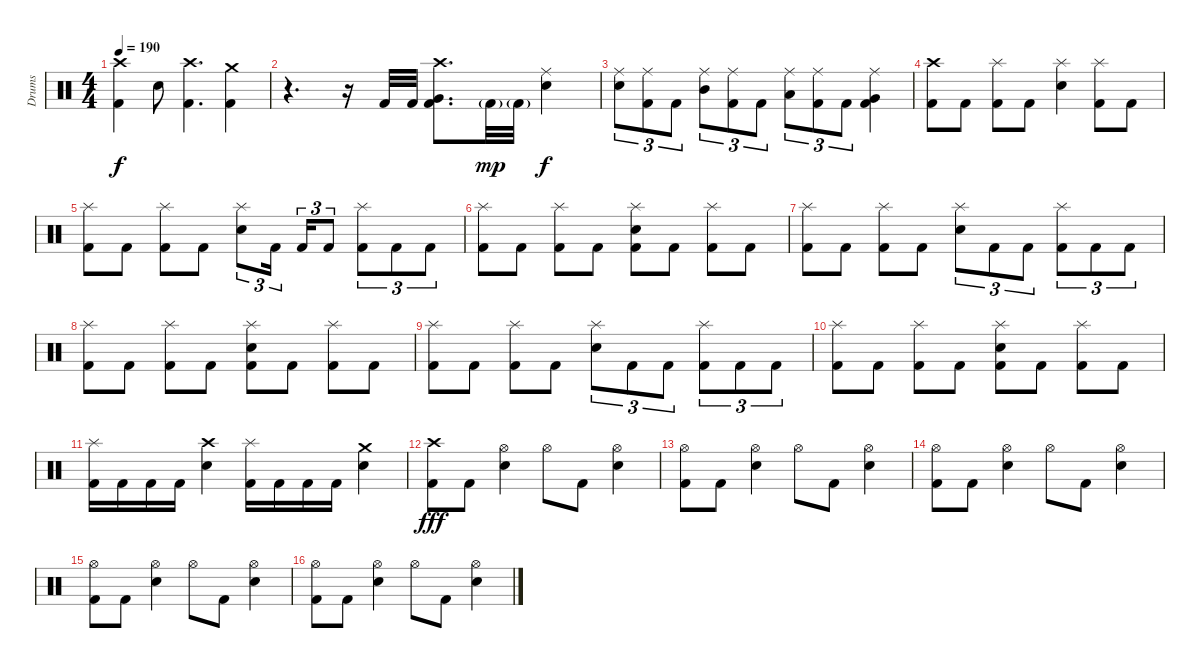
\track ("Drums" "Drums") {instrument percussion}
\staff {score}
\articulation defaults
\ts (4 4)
\tempo 190
\clef neutral
\ks c
("Crash high (hit)" "Kick (hit) 2").4{dy f} "Electric Snare (hit)".8 ("Crash high (hit)" "Kick (hit) 2").4{d} ("Crash medium (hit)" "Kick (hit) 2").4 |
r.4{d} r.16 "Kick (hit) 2".32 "Kick (hit) 2".32 ("Crash high (hit)" "Very Low Tom (hit)" "Kick (hit) 2").8{d} "Kick (hit) 2"{g}.32{dy mp} "Kick (hit) 2"{g}.32 ("Ride (middle)" "Electric Snare (hit)").4{dy f} |
("Ride (middle)" "Electric Snare (hit)").8{tu (3 2)} ("Ride (middle)" "Kick (hit) 2").8{tu (3 2)} "Kick (hit) 2".8{tu (3 2)} ("Ride (middle)" "Mid Tom (hit)").8{tu (3 2)} ("Ride (middle)" "Kick (hit) 2").8{tu (3 2)} "Kick (hit) 2".8{tu (3 2)} ("Ride (middle)" "Low Tom (hit)").8{tu (3 2)} ("Ride (middle)" "Kick (hit) 2").8{tu (3 2)} "Kick (hit) 2".8{tu (3 2)} ("Ride (middle)" "Very Low Tom (hit)" "Kick (hit) 2").4 |
("Crash high (hit)" "Kick (hit) 2").8 "Kick (hit) 2".8 ("Splash (hit)" "Kick (hit) 2").8 "Kick (hit) 2".8 ("Splash (hit)" "Electric Snare (hit)").4 ("Splash (hit)" "Kick (hit) 2").8 "Kick (hit) 2".8 |
("Splash (hit)" "Kick (hit) 2").8 "Kick (hit) 2".8 ("Splash (hit)" "Kick (hit) 2").8 "Kick (hit) 2".8 ("Splash (hit)" "Electric Snare (hit)").8{tu (3 2)} "Kick (hit) 2".16{tu (3 2) beam splitsecondary} "Kick (hit) 2".16{tu (3 2)} "Kick (hit) 2".8{tu (3 2)} ("Splash (hit)" "Kick (hit) 2").8{tu (3 2)} "Kick (hit) 2".8{tu (3 2)} "Kick (hit) 2".8{tu (3 2)} |
("Splash (hit)" "Kick (hit) 2").8 "Kick (hit) 2".8 ("Splash (hit)" "Kick (hit) 2").8 "Kick (hit) 2".8 ("Splash (hit)" "Electric Snare (hit)" "Kick (hit) 2").8 "Kick (hit) 2".8 ("Splash (hit)" "Kick (hit) 2").8 "Kick (hit) 2".8 |
("Splash (hit)" "Kick (hit) 2").8 "Kick (hit) 2".8 ("Splash (hit)" "Kick (hit) 2").8 "Kick (hit) 2".8 ("Splash (hit)" "Electric Snare (hit)").8{tu (3 2)} "Kick (hit) 2".8{tu (3 2)} "Kick (hit) 2".8{tu (3 2)} ("Splash (hit)" "Kick (hit) 2").8{tu (3 2)} "Kick (hit) 2".8{tu (3 2)} "Kick (hit) 2".8{tu (3 2)} |
("Splash (hit)" "Kick (hit) 2").8 "Kick (hit) 2".8 ("Splash (hit)" "Kick (hit) 2").8 "Kick (hit) 2".8 ("Splash (hit)" "Electric Snare (hit)" "Kick (hit) 2").8 "Kick (hit) 2".8 ("Splash (hit)" "Kick (hit) 2").8 "Kick (hit) 2".8 |
("Splash (hit)" "Kick (hit) 2").8 "Kick (hit) 2".8 ("Splash (hit)" "Kick (hit) 2").8 "Kick (hit) 2".8 ("Splash (hit)" "Electric Snare (hit)").8{tu (3 2)} "Kick (hit) 2".8{tu (3 2)} "Kick (hit) 2".8{tu (3 2)} ("Splash (hit)" "Kick (hit) 2").8{tu (3 2)} "Kick (hit) 2".8{tu (3 2)} "Kick (hit) 2".8{tu (3 2)} |
("Splash (hit)" "Kick (hit) 2").8 "Kick (hit) 2".8 ("Splash (hit)" "Kick (hit) 2").8 "Kick (hit) 2".8 ("Splash (hit)" "Electric Snare (hit)" "Kick (hit) 2").8 "Kick (hit) 2".8 ("Splash (hit)" "Kick (hit) 2").8 "Kick (hit) 2".8 |
("Splash (hit)" "Kick (hit) 2").16 "Kick (hit) 2".16 "Kick (hit) 2".16 "Kick (hit) 2".16 ("Crash high (hit)" "Electric Snare (hit)").4 ("Splash (hit)" "Kick (hit) 2").16 "Kick (hit) 2".16 "Kick (hit) 2".16 "Kick (hit) 2".16 ("Crash medium (hit)" "Electric Snare (hit)").4 |
("Crash high (hit)" "Kick (hit) 2").8{dy fff} "Kick (hit) 2".8 ("Hi-Hat (open)" "Electric Snare (hit)").4 "Hi-Hat (open)".8 "Kick (hit) 2".8 ("Hi-Hat (open)" "Electric Snare (hit)").4 |
("Hi-Hat (open)" "Kick (hit) 2").8 "Kick (hit) 2".8 ("Hi-Hat (open)" "Electric Snare (hit)").4 "Hi-Hat (open)".8 "Kick (hit) 2".8 ("Hi-Hat (open)" "Electric Snare (hit)").4 |
("Hi-Hat (open)" "Kick (hit) 2").8 "Kick (hit) 2".8 ("Hi-Hat (open)" "Electric Snare (hit)").4 "Hi-Hat (open)".8 "Kick (hit) 2".8 ("Hi-Hat (open)" "Electric Snare (hit)").4 |
("Hi-Hat (open)" "Kick (hit) 2").8 "Kick (hit) 2".8 ("Hi-Hat (open)" "Electric Snare (hit)").4 "Hi-Hat (open)".8 "Kick (hit) 2".8 ("Hi-Hat (open)" "Electric Snare (hit)").4 |
("Hi-Hat (open)" "Kick (hit) 2").8 "Kick (hit) 2".8 ("Hi-Hat (open)" "Electric Snare (hit)").4 "Hi-Hat (open)".8 "Kick (hit) 2".8 ("Hi-Hat (open)" "Electric Snare (hit)").4
